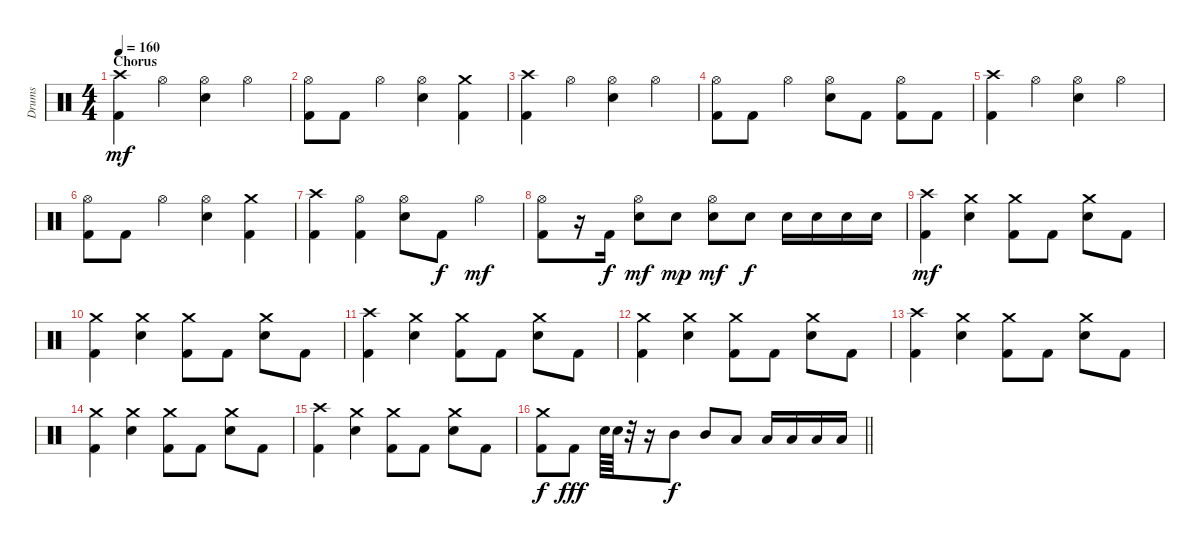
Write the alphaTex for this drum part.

\track ("Drums" "Drums") {instrument percussion}
\staff {score}
\articulation defaults
\ts (4 4)
\section ("" "Chorus")
\tempo 160
\clef neutral
\ks c
("Crash high (hit)" "Kick (hit) 2").4{dy mf} "Hi-Hat (open)".4 ("Hi-Hat (open)" "Electric Snare (hit)").4 "Hi-Hat (open)".4 |
("Hi-Hat (open)" "Kick (hit) 2").8 "Kick (hit) 2".8 "Hi-Hat (open)".4 ("Hi-Hat (open)" "Electric Snare (hit)").4 ("Crash medium (hit)" "Kick (hit) 2").4 |
("Crash high (hit)" "Kick (hit) 2").4 "Hi-Hat (open)".4 ("Hi-Hat (open)" "Electric Snare (hit)").4 "Hi-Hat (open)".4 |
("Hi-Hat (open)" "Kick (hit) 2").8 "Kick (hit) 2".8 "Hi-Hat (open)".4 ("Hi-Hat (open)" "Electric Snare (hit)").8 "Kick (hit) 2".8 ("Hi-Hat (open)" "Kick (hit) 2").8 "Kick (hit) 2".8 |
("Crash high (hit)" "Kick (hit) 2").4 "Hi-Hat (open)".4 ("Hi-Hat (open)" "Electric Snare (hit)").4 "Hi-Hat (open)".4 |
("Hi-Hat (open)" "Kick (hit) 2").8 "Kick (hit) 2".8 "Hi-Hat (open)".4 ("Hi-Hat (open)" "Electric Snare (hit)").4 ("Crash medium (hit)" "Kick (hit) 2").4 |
("Crash high (hit)" "Kick (hit) 2").4 ("Hi-Hat (open)" "Kick (hit) 2").4 ("Hi-Hat (open)" "Electric Snare (hit)").8 "Kick (hit) 2".8{dy f} "Hi-Hat (open)".4{dy mf} |
("Hi-Hat (open)" "Kick (hit) 2").8 r.16 "Kick (hit) 2".16{dy f} ("Hi-Hat (open)" "Electric Snare (hit)").8{dy mf} "Electric Snare (hit)".8{dy mp} ("Hi-Hat (open)" "Electric Snare (hit)").8{dy mf} "Electric Snare (hit)".8{dy f} "Electric Snare (hit)".16 "Electric Snare (hit)".16 "Electric Snare (hit)".16 "Electric Snare (hit)".16 |
("Crash high (hit)" "Kick (hit) 2").4{dy mf} ("Crash medium (hit)" "Electric Snare (hit)").4 ("Crash medium (hit)" "Kick (hit) 2").8 "Kick (hit) 2".8 ("Crash medium (hit)" "Electric Snare (hit)").8 "Kick (hit) 2".8 |
("Crash medium (hit)" "Kick (hit) 2").4 ("Crash medium (hit)" "Electric Snare (hit)").4 ("Crash medium (hit)" "Kick (hit) 2").8 "Kick (hit) 2".8 ("Crash medium (hit)" "Electric Snare (hit)").8 "Kick (hit) 2".8 |
("Crash high (hit)" "Kick (hit) 2").4 ("Crash medium (hit)" "Electric Snare (hit)").4 ("Crash medium (hit)" "Kick (hit) 2").8 "Kick (hit) 2".8 ("Crash medium (hit)" "Electric Snare (hit)").8 "Kick (hit) 2".8 |
("Crash medium (hit)" "Kick (hit) 2").4 ("Crash medium (hit)" "Electric Snare (hit)").4 ("Crash medium (hit)" "Kick (hit) 2").8 "Kick (hit) 2".8 ("Crash medium (hit)" "Electric Snare (hit)").8 "Kick (hit) 2".8 |
("Crash high (hit)" "Kick (hit) 2").4 ("Crash medium (hit)" "Electric Snare (hit)").4 ("Crash medium (hit)" "Kick (hit) 2").8 "Kick (hit) 2".8 ("Crash medium (hit)" "Electric Snare (hit)").8 "Kick (hit) 2".8 |
("Crash medium (hit)" "Kick (hit) 2").4 ("Crash medium (hit)" "Electric Snare (hit)").4 ("Crash medium (hit)" "Kick (hit) 2").8 "Kick (hit) 2".8 ("Crash medium (hit)" "Electric Snare (hit)").8 "Kick (hit) 2".8 |
("Crash high (hit)" "Kick (hit) 2").4 ("Crash medium (hit)" "Electric Snare (hit)").4 ("Crash medium (hit)" "Kick (hit) 2").8 "Kick (hit) 2".8 ("Crash medium (hit)" "Electric Snare (hit)").8 "Kick (hit) 2".8 |
\barLineRight lightlight
("Crash medium (hit)" "Kick (hit) 2").8{dy f} "Kick (hit) 2".8{dy fff} "Electric Snare (hit)".64 "Electric Snare (hit)".64 r.32 r.16 "Mid Tom (hit)".8{dy f} "Mid Tom (hit)".8 "Low Tom (hit)".8 "Low Tom (hit)".16 "Low Tom (hit)".16 "Low Floor Tom (hit)".16 "Low Floor Tom (hit)".16
